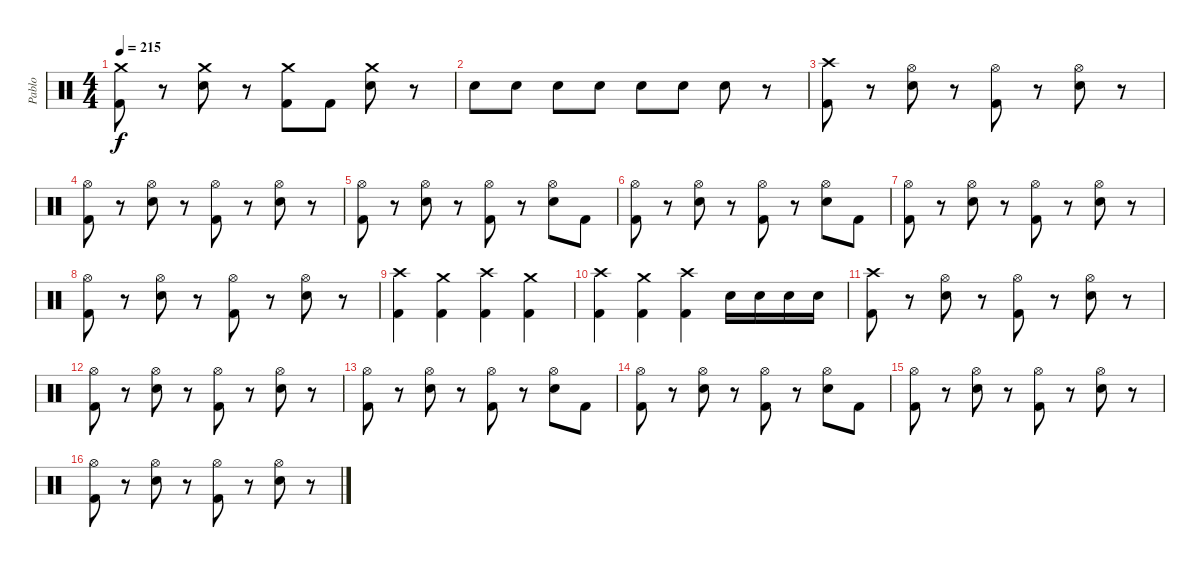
\track ("Pablo" "Pablo") {instrument percussion}
\staff {score}
\articulation defaults
\ts (4 4)
\tempo 215
\clef neutral
\ks c
("Crash medium (hit)" "Kick (hit) 2").8{dy f} r.8 ("Crash medium (hit)" "Electric Snare (hit)").8 r.8 ("Crash medium (hit)" "Kick (hit) 2").8 "Kick (hit) 2".8 ("Crash medium (hit)" "Electric Snare (hit)").8 r.8 |
"Electric Snare (hit)".8 "Electric Snare (hit)".8 "Electric Snare (hit)".8 "Electric Snare (hit)".8 "Electric Snare (hit)".8 "Electric Snare (hit)".8 "Electric Snare (hit)".8 r.8 |
("Crash high (hit)" "Kick (hit) 2").8 r.8 ("Hi-Hat (open)" "Electric Snare (hit)").8 r.8 ("Hi-Hat (open)" "Kick (hit) 2").8 r.8 ("Hi-Hat (open)" "Electric Snare (hit)").8 r.8 |
("Hi-Hat (open)" "Kick (hit) 2").8 r.8 ("Hi-Hat (open)" "Electric Snare (hit)").8 r.8 ("Hi-Hat (open)" "Kick (hit) 2").8 r.8 ("Hi-Hat (open)" "Electric Snare (hit)").8 r.8 |
("Hi-Hat (open)" "Kick (hit) 2").8 r.8 ("Hi-Hat (open)" "Electric Snare (hit)").8 r.8 ("Hi-Hat (open)" "Kick (hit) 2").8 r.8 ("Hi-Hat (open)" "Electric Snare (hit)").8 "Kick (hit) 2".8 |
("Hi-Hat (open)" "Kick (hit) 2").8 r.8 ("Hi-Hat (open)" "Electric Snare (hit)").8 r.8 ("Hi-Hat (open)" "Kick (hit) 2").8 r.8 ("Hi-Hat (open)" "Electric Snare (hit)").8 "Kick (hit) 2".8 |
("Hi-Hat (open)" "Kick (hit) 2").8 r.8 ("Hi-Hat (open)" "Electric Snare (hit)").8 r.8 ("Hi-Hat (open)" "Kick (hit) 2").8 r.8 ("Hi-Hat (open)" "Electric Snare (hit)").8 r.8 |
("Hi-Hat (open)" "Kick (hit) 2").8 r.8 ("Hi-Hat (open)" "Electric Snare (hit)").8 r.8 ("Hi-Hat (open)" "Kick (hit) 2").8 r.8 ("Hi-Hat (open)" "Electric Snare (hit)").8 r.8 |
("Crash high (hit)" "Kick (hit) 2").4 ("Crash medium (hit)" "Kick (hit) 2").4 ("Crash high (hit)" "Kick (hit) 2").4 ("Crash medium (hit)" "Kick (hit) 2").4 |
("Crash high (hit)" "Kick (hit) 2").4 ("Crash medium (hit)" "Kick (hit) 2").4 ("Crash high (hit)" "Kick (hit) 2").4 "Electric Snare (hit)".16 "Electric Snare (hit)".16 "Electric Snare (hit)".16 "Electric Snare (hit)".16 |
("Crash high (hit)" "Kick (hit) 2").8 r.8 ("Hi-Hat (open)" "Electric Snare (hit)").8 r.8 ("Hi-Hat (open)" "Kick (hit) 2").8 r.8 ("Hi-Hat (open)" "Electric Snare (hit)").8 r.8 |
("Hi-Hat (open)" "Kick (hit) 2").8 r.8 ("Hi-Hat (open)" "Electric Snare (hit)").8 r.8 ("Hi-Hat (open)" "Kick (hit) 2").8 r.8 ("Hi-Hat (open)" "Electric Snare (hit)").8 r.8 |
("Hi-Hat (open)" "Kick (hit) 2").8 r.8 ("Hi-Hat (open)" "Electric Snare (hit)").8 r.8 ("Hi-Hat (open)" "Kick (hit) 2").8 r.8 ("Hi-Hat (open)" "Electric Snare (hit)").8 "Kick (hit) 2".8 |
("Hi-Hat (open)" "Kick (hit) 2").8 r.8 ("Hi-Hat (open)" "Electric Snare (hit)").8 r.8 ("Hi-Hat (open)" "Kick (hit) 2").8 r.8 ("Hi-Hat (open)" "Electric Snare (hit)").8 "Kick (hit) 2".8 |
("Hi-Hat (open)" "Kick (hit) 2").8 r.8 ("Hi-Hat (open)" "Electric Snare (hit)").8 r.8 ("Hi-Hat (open)" "Kick (hit) 2").8 r.8 ("Hi-Hat (open)" "Electric Snare (hit)").8 r.8 |
("Hi-Hat (open)" "Kick (hit) 2").8 r.8 ("Hi-Hat (open)" "Electric Snare (hit)").8 r.8 ("Hi-Hat (open)" "Kick (hit) 2").8 r.8 ("Hi-Hat (open)" "Electric Snare (hit)").8 r.8
